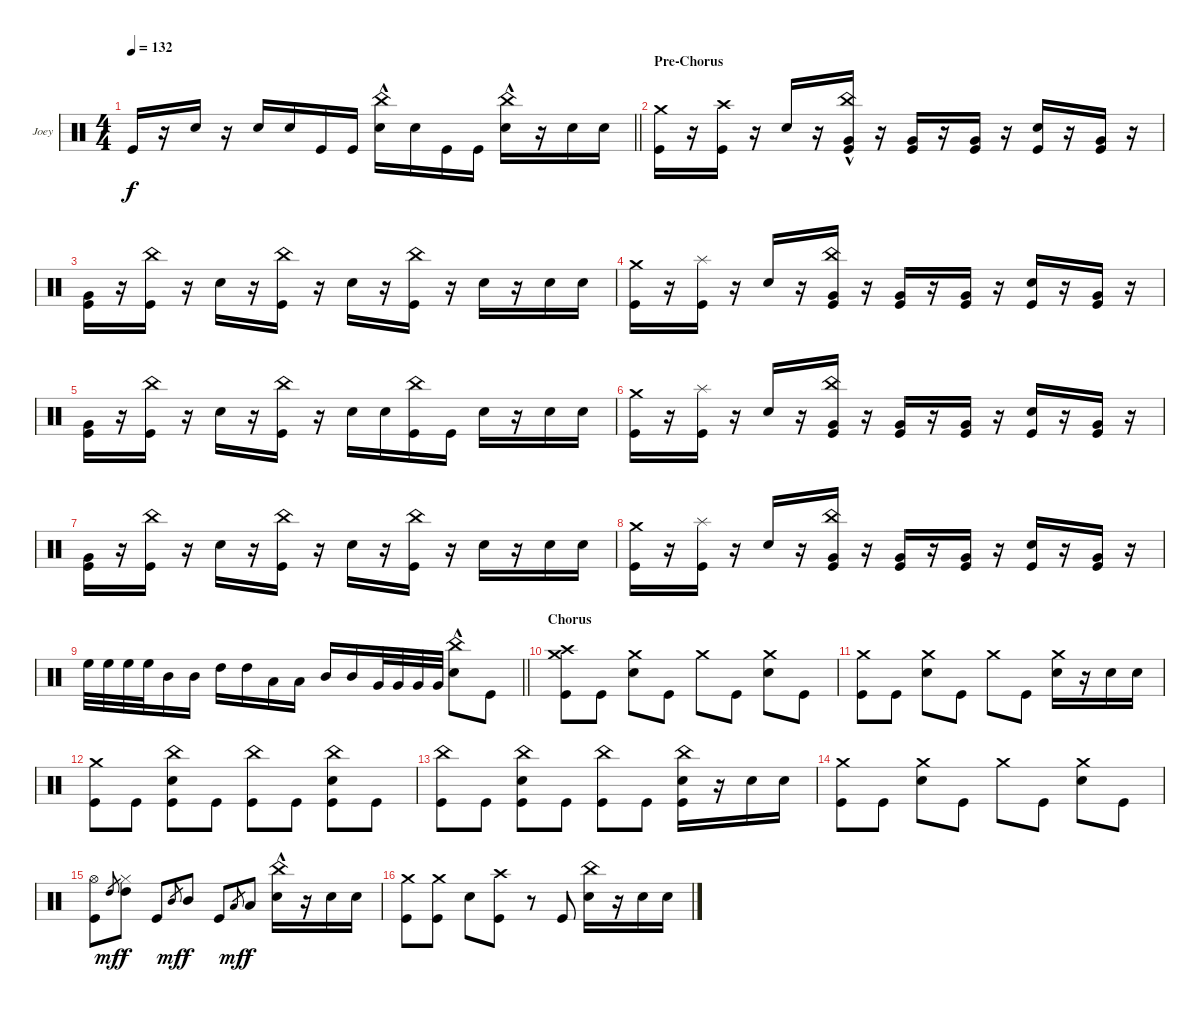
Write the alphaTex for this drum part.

\bracketExtendMode groupsimilarinstruments
\firstSystemTrackNameOrientation horizontal
\otherSystemsTrackNameOrientation horizontal
\track ("Joey Jordison" "Joey") {instrument percussion}
\staff {score}
\articulation defaults
\ts (4 4)
\tempo 132
\clef neutral
\barLineRight lightlight
\ks c "Kick (hit)".16{dy f}
r.16 "Snare (hit) 2".16 r.16 "Snare (hit) 2".16 "Snare (hit) 2".16 "Kick (hit)".16 "Kick (hit)".16 ("Snare (hit) 2" "China (hit)"{hac}).16 "Snare (hit) 2".16 "Kick (hit)".16 "Kick (hit)".16 ("Snare (hit) 2" "China (hit)"{hac}).16 r.16 "Snare (hit) 2".16 "Snare (hit) 2".16 |
\section ("" "Pre-Chorus")
("Crash medium (hit)" "Kick (hit)").16 r.16 ("Kick (hit)" "Crash high (hit)").16 r.16 "Snare (hit) 2".16 r.16 ("China (hit)"{hac} "Very Low Tom (hit)" "Kick (hit)").16 r.16 ("Very Low Tom (hit)" "Kick (hit)").16 r.16 ("Very Low Tom (hit)" "Kick (hit)").16 r.16 ("Snare (hit) 2" "Kick (hit)").16 r.16 ("Very Low Tom (hit)" "Kick (hit)").16 r.16 |
("Very Low Tom (hit)" "Kick (hit)").16 r.16 ("China (hit)" "Kick (hit)").16 r.16 "Snare (hit) 2".16 r.16 ("China (hit)" "Kick (hit)").16 r.16 "Snare (hit) 2".16 r.16 ("China (hit)" "Kick (hit)").16 r.16 "Snare (hit) 2".16 r.16 "Snare (hit) 2".16 "Snare (hit) 2".16 |
("Crash medium (hit)" "Kick (hit)").16 r.16 ("Splash (hit)" "Kick (hit)").16 r.16 "Snare (hit) 2".16 r.16 ("China (hit)" "Very Low Tom (hit)" "Kick (hit)").16 r.16 ("Very Low Tom (hit)" "Kick (hit)").16 r.16 ("Very Low Tom (hit)" "Kick (hit)").16 r.16 ("Snare (hit) 2" "Kick (hit)").16 r.16 ("Very Low Tom (hit)" "Kick (hit)").16 r.16 |
("Very Low Tom (hit)" "Kick (hit)").16 r.16 ("China (hit)" "Kick (hit)").16 r.16 "Snare (hit) 2".16 r.16 ("China (hit)" "Kick (hit)").16 r.16 "Snare (hit) 2".16 "Snare (hit) 2".16 ("China (hit)" "Kick (hit)").16 "Kick (hit)".16 "Snare (hit) 2".16 r.16 "Snare (hit) 2".16 "Snare (hit) 2".16 |
("Crash medium (hit)" "Kick (hit)").16 r.16 ("Splash (hit)" "Kick (hit)").16 r.16 "Snare (hit) 2".16 r.16 ("China (hit)" "Very Low Tom (hit)" "Kick (hit)").16 r.16 ("Very Low Tom (hit)" "Kick (hit)").16 r.16 ("Very Low Tom (hit)" "Kick (hit)").16 r.16 ("Snare (hit) 2" "Kick (hit)").16 r.16 ("Very Low Tom (hit)" "Kick (hit)").16 r.16 |
("Very Low Tom (hit)" "Kick (hit)").16 r.16 ("China (hit)" "Kick (hit)").16 r.16 "Snare (hit) 2".16 r.16 ("China (hit)" "Kick (hit)").16 r.16 "Snare (hit) 2".16 r.16 ("China (hit)" "Kick (hit)").16 r.16 "Snare (hit) 2".16 r.16 "Snare (hit) 2".16 "Snare (hit) 2".16 |
("Crash medium (hit)" "Kick (hit)").16 r.16 ("Splash (hit)" "Kick (hit)").16 r.16 "Snare (hit) 2".16 r.16 ("China (hit)" "Very Low Tom (hit)" "Kick (hit)").16 r.16 ("Very Low Tom (hit)" "Kick (hit)").16 r.16 ("Very Low Tom (hit)" "Kick (hit)").16 r.16 ("Snare (hit) 2" "Kick (hit)").16 r.16 ("Very Low Tom (hit)" "Kick (hit)").16 r.16 |
\barLineRight lightlight "High Floor Tom (hit)".32 "High Floor Tom (hit)".32 "High Floor Tom (hit)".32 "High Floor Tom (hit)".32 "Mid Tom (hit)".16 "Mid Tom (hit)".16 "High Tom (hit)".16 "High Tom (hit)".16 "Low Tom (hit)".16 "Low Tom (hit)".16 "Mid Tom (hit)".16 "Mid Tom (hit)".16 "Very Low Tom (hit)".32 "Very Low Tom (hit)".32 "Very Low Tom (hit)".32 "Very Low Tom (hit)".32
("Snare (hit) 2" "China (hit)"{hac}).8 "Kick (hit)".8 |
\section ("" "Chorus")
("Kick (hit)" "Crash medium (hit)" "Crash high (hit)").8 "Kick (hit)".8 ("Crash medium (hit)" "Snare (hit) 2").8 "Kick (hit)".8 "Crash medium (hit)".8 "Kick (hit)".8 ("Crash medium (hit)" "Snare (hit) 2").8 "Kick (hit)".8 |
("Crash medium (hit)" "Kick (hit)").8 "Kick (hit)".8 ("Crash medium (hit)" "Snare (hit) 2").8 "Kick (hit)".8 "Crash medium (hit)".8 "Kick (hit)".8 ("Crash medium (hit)" "Snare (hit) 2").16 r.16 "Snare (hit) 2".16 "Snare (hit) 2".16 |
("Kick (hit)" "Crash medium (hit)").8 "Kick (hit)".8 ("Snare (hit) 2" "Kick (hit)" "China (hit)").8 "Kick (hit)".8 ("Kick (hit)" "China (hit)").8 "Kick (hit)".8 ("Snare (hit) 2" "Kick (hit)" "China (hit)").8 "Kick (hit)".8 |
("Kick (hit)" "China (hit)").8 "Kick (hit)".8 ("Snare (hit) 2" "Kick (hit)" "China (hit)").8 "Kick (hit)".8 ("Kick (hit)" "China (hit)").8 "Kick (hit)".8 ("Snare (hit) 2" "Kick (hit)" "China (hit)").16 r.16 "Snare (hit) 2".16 "Snare (hit) 2".16 |
("Crash medium (hit)" "Kick (hit)").8 "Kick (hit)".8 ("Crash medium (hit)" "Snare (hit) 2").8 "Kick (hit)".8 "Crash medium (hit)".8 "Kick (hit)".8 ("Crash medium (hit)" "Snare (hit) 2").8 "Kick (hit)".8 |
("Hi-Hat (open)" "Kick (hit)").8 "High Tom (hit)".8{gr dy mf} ("Hi-Hat (closed)" "High Tom (hit)").8{dy f} "Kick (hit)".8 "Mid Tom (hit)".8{gr dy mf} "Mid Tom (hit)".8{dy f} "Kick (hit)".8 "Low Tom (hit)".8{gr dy mf} "Low Tom (hit)".8{dy f} ("Snare (hit) 2" "China (hit)"{hac}).16 r.16 "Snare (hit) 2".16 "Snare (hit) 2".16 |
("Crash medium (hit)" "Kick (hit)").8 ("Kick (hit)" "Crash medium (hit)").8 "Snare (hit) 2".8 ("Kick (hit)" "Crash high (hit)").8 r.8 "Kick (hit)".8 ("Snare (hit) 2" "China (hit)").16 r.16 "Snare (hit) 2".16 "Snare (hit) 2".16
